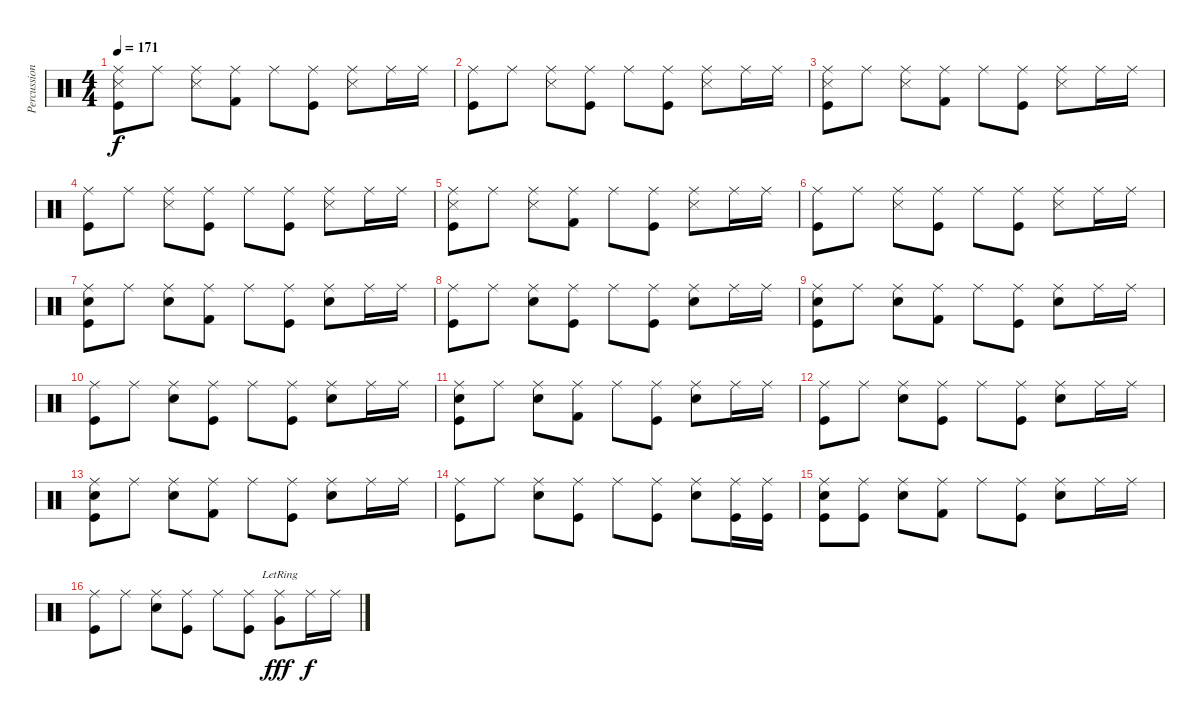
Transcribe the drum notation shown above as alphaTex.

\track ("Percussions" "Percussion") {instrument percussion}
\staff {score}
\articulation defaults
\ts (4 4)
\tempo 171
\clef neutral
\ks c
("Ride (middle)" "Snare (side stick) 3" "Kick (hit)").8{dy f} "Ride (middle)".8 ("Ride (middle)" "Snare (side stick) 3").8 ("Ride (middle)" "Kick (hit) 2").8 "Ride (middle)".8 ("Ride (middle)" "Kick (hit)").8 ("Ride (middle)" "Snare (side stick) 3").8 "Ride (middle)".16 "Ride (middle)".16 |
("Ride (middle)" "Kick (hit)").8 "Ride (middle)".8 ("Ride (middle)" "Snare (side stick) 3").8 ("Ride (middle)" "Kick (hit)").8 "Ride (middle)".8 ("Ride (middle)" "Kick (hit)").8 ("Ride (middle)" "Snare (side stick) 3").8 "Ride (middle)".16 "Ride (middle)".16 |
("Ride (middle)" "Snare (side stick) 3" "Kick (hit)").8 "Ride (middle)".8 ("Ride (middle)" "Snare (side stick) 3").8 ("Ride (middle)" "Kick (hit) 2").8 "Ride (middle)".8 ("Ride (middle)" "Kick (hit)").8 ("Ride (middle)" "Snare (side stick) 3").8 "Ride (middle)".16 "Ride (middle)".16 |
("Ride (middle)" "Kick (hit)").8 "Ride (middle)".8 ("Ride (middle)" "Snare (side stick) 3").8 ("Ride (middle)" "Kick (hit)").8 "Ride (middle)".8 ("Ride (middle)" "Kick (hit)").8 ("Ride (middle)" "Snare (side stick) 3").8 "Ride (middle)".16 "Ride (middle)".16 |
("Ride (middle)" "Snare (side stick) 3" "Kick (hit)").8 "Ride (middle)".8 ("Ride (middle)" "Snare (side stick) 3").8 ("Ride (middle)" "Kick (hit) 2").8 "Ride (middle)".8 ("Ride (middle)" "Kick (hit)").8 ("Ride (middle)" "Snare (side stick) 3").8 "Ride (middle)".16 "Ride (middle)".16 |
("Ride (middle)" "Kick (hit)").8 "Ride (middle)".8 ("Ride (middle)" "Snare (side stick) 3").8 ("Ride (middle)" "Kick (hit)").8 "Ride (middle)".8 ("Ride (middle)" "Kick (hit)").8 ("Ride (middle)" "Snare (side stick) 3").8 "Ride (middle)".16 "Ride (middle)".16 |
("Ride (middle)" "Snare (hit) 2" "Kick (hit)").8 "Ride (middle)".8 ("Ride (middle)" "Snare (hit) 2").8 ("Ride (middle)" "Kick (hit) 2").8 "Ride (middle)".8 ("Ride (middle)" "Kick (hit)").8 ("Ride (middle)" "Snare (hit) 2").8 "Ride (middle)".16 "Ride (middle)".16 |
("Ride (middle)" "Kick (hit)").8 "Ride (middle)".8 ("Ride (middle)" "Snare (hit) 2").8 ("Ride (middle)" "Kick (hit)").8 "Ride (middle)".8 ("Ride (middle)" "Kick (hit)").8 ("Ride (middle)" "Snare (hit) 2").8 "Ride (middle)".16 "Ride (middle)".16 |
("Ride (middle)" "Snare (hit) 2" "Kick (hit)").8 "Ride (middle)".8 ("Ride (middle)" "Snare (hit) 2").8 ("Ride (middle)" "Kick (hit) 2").8 "Ride (middle)".8 ("Ride (middle)" "Kick (hit)").8 ("Ride (middle)" "Snare (hit) 2").8 "Ride (middle)".16 "Ride (middle)".16 |
("Ride (middle)" "Kick (hit)").8 "Ride (middle)".8 ("Ride (middle)" "Snare (hit) 2").8 ("Ride (middle)" "Kick (hit)").8 "Ride (middle)".8 ("Ride (middle)" "Kick (hit)").8 ("Ride (middle)" "Snare (hit) 2").8 "Ride (middle)".16 "Ride (middle)".16 |
("Ride (middle)" "Snare (hit) 2" "Kick (hit)").8 "Ride (middle)".8 ("Ride (middle)" "Snare (hit) 2").8 ("Ride (middle)" "Kick (hit) 2").8 "Ride (middle)".8 ("Ride (middle)" "Kick (hit)").8 ("Ride (middle)" "Snare (hit) 2").8 "Ride (middle)".16 "Ride (middle)".16 |
("Ride (middle)" "Kick (hit)").8 "Ride (middle)".8 ("Ride (middle)" "Snare (hit) 2").8 ("Ride (middle)" "Kick (hit)").8 "Ride (middle)".8 ("Ride (middle)" "Kick (hit)").8 ("Ride (middle)" "Snare (hit) 2").8 "Ride (middle)".16 "Ride (middle)".16 |
("Ride (middle)" "Snare (hit) 2" "Kick (hit)").8 "Ride (middle)".8 ("Ride (middle)" "Snare (hit) 2").8 ("Ride (middle)" "Kick (hit) 2").8 "Ride (middle)".8 ("Ride (middle)" "Kick (hit)").8 ("Ride (middle)" "Snare (hit) 2").8 "Ride (middle)".16 "Ride (middle)".16 |
("Ride (middle)" "Kick (hit)").8 "Ride (middle)".8 ("Ride (middle)" "Snare (hit) 2").8 ("Ride (middle)" "Kick (hit)").8 "Ride (middle)".8 ("Ride (middle)" "Kick (hit)").8 ("Ride (middle)" "Snare (hit) 2").8 ("Ride (middle)" "Kick (hit)").16 ("Ride (middle)" "Kick (hit)").16 |
("Ride (middle)" "Snare (hit) 2" "Kick (hit)").8 ("Ride (middle)" "Kick (hit)").8 ("Ride (middle)" "Snare (hit) 2").8 ("Ride (middle)" "Kick (hit) 2").8 "Ride (middle)".8 ("Ride (middle)" "Kick (hit)").8 ("Ride (middle)" "Snare (hit) 2").8 "Ride (middle)".16 "Ride (middle)".16 |
("Ride (middle)" "Kick (hit)").8 "Ride (middle)".8 ("Ride (middle)" "Snare (hit) 2").8 ("Ride (middle)" "Kick (hit)").8 "Ride (middle)".8 ("Ride (middle)" "Kick (hit)").8 ("Ride (middle)" "Very Low Tom (hit)"{lr}).8{dy fff} "Ride (middle)".16{dy f} "Ride (middle)".16
